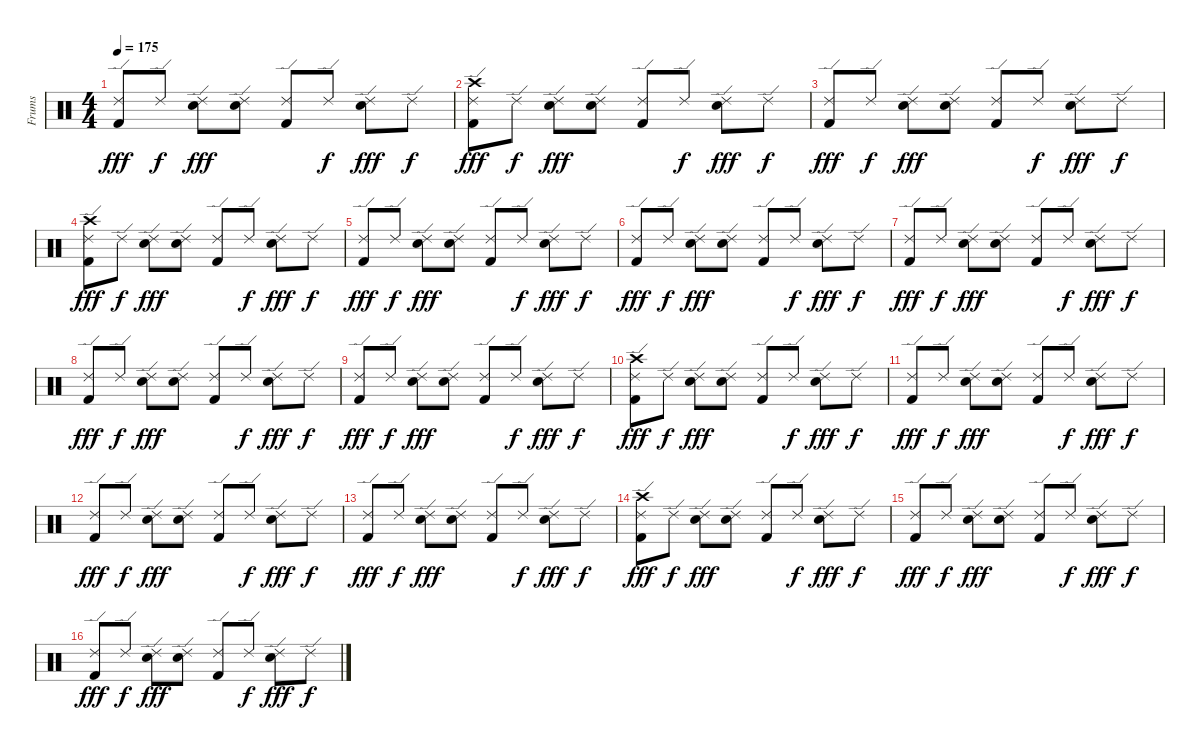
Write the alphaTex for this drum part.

\track ("Frums" "Frums") {instrument percussion}
\staff {score}
\articulation defaults
\ts (4 4)
\tempo 175
\clef neutral
\ks c
("Ride (edge) 2" "Kick (hit) 2").8{dy fff} "Ride (edge) 2".8{dy f} ("Ride (edge) 2" "Electric Snare (hit)").8{dy fff} ("Ride (edge) 2" "Electric Snare (hit)").8 ("Ride (edge) 2" "Kick (hit) 2").8 "Ride (edge) 2".8{dy f} ("Ride (edge) 2" "Electric Snare (hit)").8{dy fff} "Ride (edge) 2".8{dy f} |
("Ride (edge) 2" "Kick (hit) 2" "Crash high (hit)").8{dy fff} "Ride (edge) 2".8{dy f} ("Ride (edge) 2" "Electric Snare (hit)").8{dy fff} ("Ride (edge) 2" "Electric Snare (hit)").8 ("Ride (edge) 2" "Kick (hit) 2").8 "Ride (edge) 2".8{dy f} ("Ride (edge) 2" "Electric Snare (hit)").8{dy fff} "Ride (edge) 2".8{dy f} |
("Ride (edge) 2" "Kick (hit) 2").8{dy fff} "Ride (edge) 2".8{dy f} ("Ride (edge) 2" "Electric Snare (hit)").8{dy fff} ("Ride (edge) 2" "Electric Snare (hit)").8 ("Ride (edge) 2" "Kick (hit) 2").8 "Ride (edge) 2".8{dy f} ("Ride (edge) 2" "Electric Snare (hit)").8{dy fff} "Ride (edge) 2".8{dy f} |
("Ride (edge) 2" "Kick (hit) 2" "Crash high (hit)").8{dy fff} "Ride (edge) 2".8{dy f} ("Ride (edge) 2" "Electric Snare (hit)").8{dy fff} ("Ride (edge) 2" "Electric Snare (hit)").8 ("Ride (edge) 2" "Kick (hit) 2").8 "Ride (edge) 2".8{dy f} ("Ride (edge) 2" "Electric Snare (hit)").8{dy fff} "Ride (edge) 2".8{dy f} |
("Ride (edge) 2" "Kick (hit) 2").8{dy fff} "Ride (edge) 2".8{dy f} ("Ride (edge) 2" "Electric Snare (hit)").8{dy fff} ("Ride (edge) 2" "Electric Snare (hit)").8 ("Ride (edge) 2" "Kick (hit) 2").8 "Ride (edge) 2".8{dy f} ("Ride (edge) 2" "Electric Snare (hit)").8{dy fff} "Ride (edge) 2".8{dy f} |
("Ride (edge) 2" "Kick (hit) 2").8{dy fff} "Ride (edge) 2".8{dy f} ("Ride (edge) 2" "Electric Snare (hit)").8{dy fff} ("Ride (edge) 2" "Electric Snare (hit)").8 ("Ride (edge) 2" "Kick (hit) 2").8 "Ride (edge) 2".8{dy f} ("Ride (edge) 2" "Electric Snare (hit)").8{dy fff} "Ride (edge) 2".8{dy f} |
("Ride (edge) 2" "Kick (hit) 2").8{dy fff} "Ride (edge) 2".8{dy f} ("Ride (edge) 2" "Electric Snare (hit)").8{dy fff} ("Ride (edge) 2" "Electric Snare (hit)").8 ("Ride (edge) 2" "Kick (hit) 2").8 "Ride (edge) 2".8{dy f} ("Ride (edge) 2" "Electric Snare (hit)").8{dy fff} "Ride (edge) 2".8{dy f} |
("Ride (edge) 2" "Kick (hit) 2").8{dy fff} "Ride (edge) 2".8{dy f} ("Ride (edge) 2" "Electric Snare (hit)").8{dy fff} ("Ride (edge) 2" "Electric Snare (hit)").8 ("Ride (edge) 2" "Kick (hit) 2").8 "Ride (edge) 2".8{dy f} ("Ride (edge) 2" "Electric Snare (hit)").8{dy fff} "Ride (edge) 2".8{dy f} |
("Ride (edge) 2" "Kick (hit) 2").8{dy fff} "Ride (edge) 2".8{dy f} ("Ride (edge) 2" "Electric Snare (hit)").8{dy fff} ("Ride (edge) 2" "Electric Snare (hit)").8 ("Ride (edge) 2" "Kick (hit) 2").8 "Ride (edge) 2".8{dy f} ("Ride (edge) 2" "Electric Snare (hit)").8{dy fff} "Ride (edge) 2".8{dy f} |
("Ride (edge) 2" "Kick (hit) 2" "Crash high (hit)").8{dy fff} "Ride (edge) 2".8{dy f} ("Ride (edge) 2" "Electric Snare (hit)").8{dy fff} ("Ride (edge) 2" "Electric Snare (hit)").8 ("Ride (edge) 2" "Kick (hit) 2").8 "Ride (edge) 2".8{dy f} ("Ride (edge) 2" "Electric Snare (hit)").8{dy fff} "Ride (edge) 2".8{dy f} |
("Ride (edge) 2" "Kick (hit) 2").8{dy fff} "Ride (edge) 2".8{dy f} ("Ride (edge) 2" "Electric Snare (hit)").8{dy fff} ("Ride (edge) 2" "Electric Snare (hit)").8 ("Ride (edge) 2" "Kick (hit) 2").8 "Ride (edge) 2".8{dy f} ("Ride (edge) 2" "Electric Snare (hit)").8{dy fff} "Ride (edge) 2".8{dy f} |
("Ride (edge) 2" "Kick (hit) 2").8{dy fff} "Ride (edge) 2".8{dy f} ("Ride (edge) 2" "Electric Snare (hit)").8{dy fff} ("Ride (edge) 2" "Electric Snare (hit)").8 ("Ride (edge) 2" "Kick (hit) 2").8 "Ride (edge) 2".8{dy f} ("Ride (edge) 2" "Electric Snare (hit)").8{dy fff} "Ride (edge) 2".8{dy f} |
("Ride (edge) 2" "Kick (hit) 2").8{dy fff} "Ride (edge) 2".8{dy f} ("Ride (edge) 2" "Electric Snare (hit)").8{dy fff} ("Ride (edge) 2" "Electric Snare (hit)").8 ("Ride (edge) 2" "Kick (hit) 2").8 "Ride (edge) 2".8{dy f} ("Ride (edge) 2" "Electric Snare (hit)").8{dy fff} "Ride (edge) 2".8{dy f} |
("Ride (edge) 2" "Kick (hit) 2" "Crash high (hit)").8{dy fff} "Ride (edge) 2".8{dy f} ("Ride (edge) 2" "Electric Snare (hit)").8{dy fff} ("Ride (edge) 2" "Electric Snare (hit)").8 ("Ride (edge) 2" "Kick (hit) 2").8 "Ride (edge) 2".8{dy f} ("Ride (edge) 2" "Electric Snare (hit)").8{dy fff} "Ride (edge) 2".8{dy f} |
("Ride (edge) 2" "Kick (hit) 2").8{dy fff} "Ride (edge) 2".8{dy f} ("Ride (edge) 2" "Electric Snare (hit)").8{dy fff} ("Ride (edge) 2" "Electric Snare (hit)").8 ("Ride (edge) 2" "Kick (hit) 2").8 "Ride (edge) 2".8{dy f} ("Ride (edge) 2" "Electric Snare (hit)").8{dy fff} "Ride (edge) 2".8{dy f} |
("Ride (edge) 2" "Kick (hit) 2").8{dy fff} "Ride (edge) 2".8{dy f} ("Ride (edge) 2" "Electric Snare (hit)").8{dy fff} ("Ride (edge) 2" "Electric Snare (hit)").8 ("Ride (edge) 2" "Kick (hit) 2").8 "Ride (edge) 2".8{dy f} ("Ride (edge) 2" "Electric Snare (hit)").8{dy fff} "Ride (edge) 2".8{dy f}
